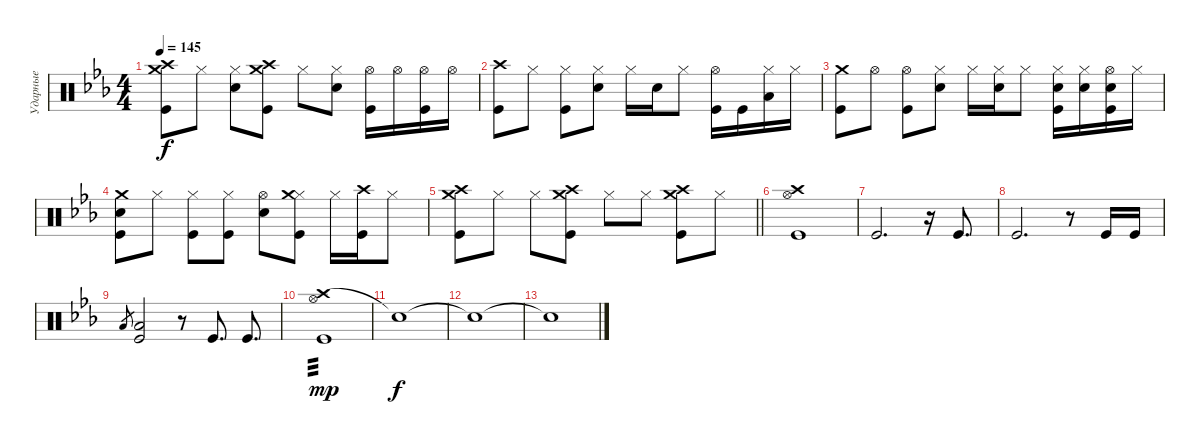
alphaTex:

\track ("Ударные" "Ударные") {instrument percussion}
\staff {score}
\articulation defaults
\ts (4 4)
\tempo 145
\clef neutral
\ks cminor
("Crash medium (hit)" "Crash high (hit)" "Kick (hit)").8{dy f} "Hi-Hat (closed)".8 ("Hi-Hat (closed)" "Snare (hit) 2").8 ("Crash medium (hit)" "Crash high (hit)" "Kick (hit)").8 "Hi-Hat (closed)".8 ("Hi-Hat (closed)" "Snare (hit) 2").8 ("Hi-Hat (open)" "Kick (hit)").16 "Hi-Hat (open)".16 ("Hi-Hat (open)" "Kick (hit)").16 "Hi-Hat (open)".16 |
("Crash high (hit)" "Kick (hit)").8 "Hi-Hat (closed)".8 ("Hi-Hat (closed)" "Kick (hit)").8 ("Hi-Hat (closed)" "Snare (hit) 2").8 "Hi-Hat (closed)".16 "Snare (hit) 2".16 "Hi-Hat (closed)".8 ("Hi-Hat (open)" "Kick (hit)").16 "Kick (hit)".16 ("Hi-Hat (closed)" "Low Floor Tom (hit)").16 "Hi-Hat (closed)".16 |
("Crash medium (hit)" "Kick (hit)").8 "Hi-Hat (open)".8 ("Hi-Hat (open)" "Kick (hit)").8 ("Hi-Hat (closed)" "Snare (hit) 2").8 "Hi-Hat (closed)".16 ("Hi-Hat (closed)" "Snare (hit) 2").16 "Hi-Hat (closed)".8 ("Hi-Hat (closed)" "Snare (hit) 2" "Kick (hit)").16 ("Hi-Hat (closed)" "Snare (hit) 2").16 ("Hi-Hat (open)" "Snare (hit) 2" "Kick (hit)").16 "Hi-Hat (closed)".16 |
("Crash medium (hit)" "Snare (hit) 2" "Kick (hit)").8 "Hi-Hat (closed)".8 ("Hi-Hat (closed)" "Kick (hit)").8 ("Hi-Hat (closed)" "Kick (hit)").8 ("Hi-Hat (open)" "Snare (hit) 2").8 ("Hi-Hat (closed)" "Crash medium (hit)" "Kick (hit)").8 "Hi-Hat (closed)".16 ("Crash high (hit)" "Kick (hit)").16 "Hi-Hat (closed)".8 |
\barLineRight lightlight
("Crash high (hit)" "Crash medium (hit)" "Kick (hit)").8 "Hi-Hat (closed)".8 "Hi-Hat (closed)".8 ("Crash high (hit)" "Crash medium (hit)" "Kick (hit)").8 "Hi-Hat (closed)".8 "Hi-Hat (closed)".8 ("Crash high (hit)" "Crash medium (hit)" "Kick (hit)").8 "Hi-Hat (closed)".8 |
("Hi-Hat (open)" "Crash high (hit)" "Kick (hit)").1 |
"Kick (hit)".2{d} r.16 "Kick (hit)".8{d} |
"Kick (hit)".2{d} r.8 "Kick (hit)".16 "Kick (hit)".16 |
"Low Floor Tom (hit)".8{gr} ("Low Floor Tom (hit)" "Kick (hit)").2 r.8 "Kick (hit)".8{d} "Kick (hit)".8{d} |
("Crash high (hit)" "Hi-Hat (open)" "Kick (hit)").1{tp 3 dy mp} |
"Snare (hit)"{t}.1{dy f} |
"Snare (hit)"{t}.1 |
"Snare (hit)"{t}.1
